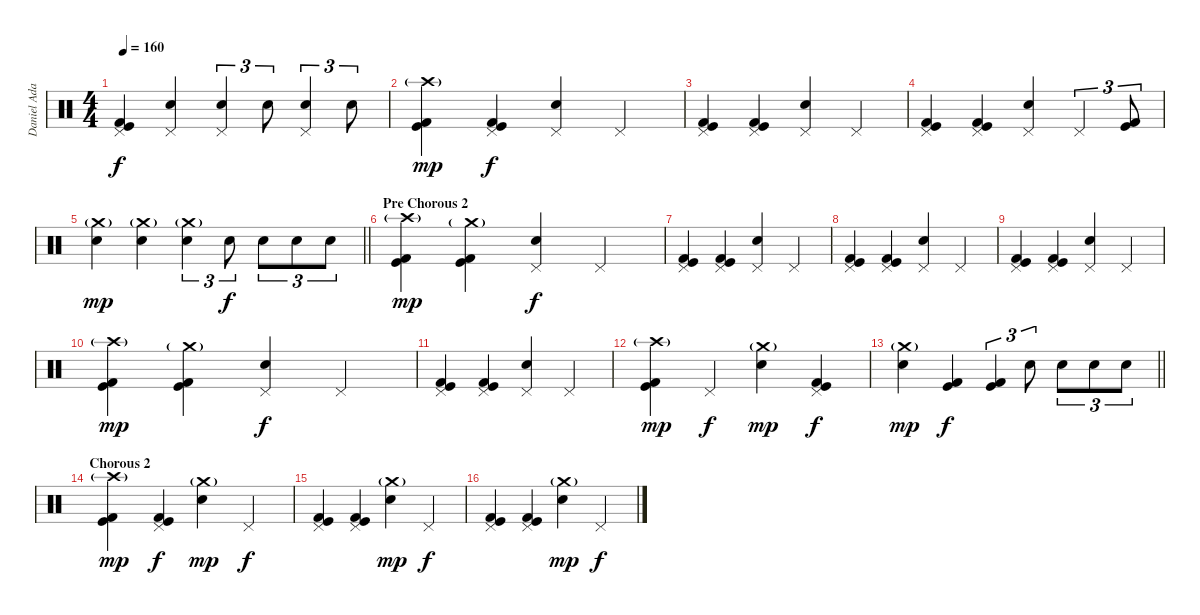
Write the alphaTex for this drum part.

\track ("Daniel Adair" "Daniel Ada") {instrument percussion}
\staff {score}
\articulation defaults
\ts (4 4)
\tempo 160
\clef neutral
\ks c
("Pedal Hi-Hat (hit)" "Kick (hit)" "Kick (hit) 2").4{dy f} ("Pedal Hi-Hat (hit)" "Electric Snare (hit)").4 ("Pedal Hi-Hat (hit)" "Electric Snare (hit)").4{tu (3 2)} "Electric Snare (hit)".8{tu (3 2)} ("Pedal Hi-Hat (hit)" "Electric Snare (hit)").4{tu (3 2)} "Electric Snare (hit)".8{tu (3 2)} |
("Crash high (hit)"{g} "Kick (hit)" "Kick (hit) 2").4{dy mp} ("Pedal Hi-Hat (hit)" "Kick (hit)" "Kick (hit) 2").4{dy f} ("Pedal Hi-Hat (hit)" "Electric Snare (hit)").4 "Pedal Hi-Hat (hit)".4 |
("Pedal Hi-Hat (hit)" "Kick (hit)" "Kick (hit) 2").4 ("Pedal Hi-Hat (hit)" "Kick (hit)" "Kick (hit) 2").4 ("Pedal Hi-Hat (hit)" "Electric Snare (hit)").4 "Pedal Hi-Hat (hit)".4 |
("Pedal Hi-Hat (hit)" "Kick (hit)" "Kick (hit) 2").4 ("Pedal Hi-Hat (hit)" "Kick (hit)" "Kick (hit) 2").4 ("Pedal Hi-Hat (hit)" "Electric Snare (hit)").4 "Pedal Hi-Hat (hit)".4{tu (3 2)} ("Kick (hit)" "Kick (hit) 2").8{tu (3 2)} |
\barLineRight lightlight
("Crash medium (hit)"{g} "Electric Snare (hit)").4{dy mp} ("Crash medium (hit)"{g} "Electric Snare (hit)").4 ("Crash medium (hit)"{g} "Electric Snare (hit)").4{tu (3 2)} "Electric Snare (hit)".8{tu (3 2) dy f} "Electric Snare (hit)".8{tu (3 2)} "Electric Snare (hit)".8{tu (3 2)} "Electric Snare (hit)".8{tu (3 2)} |
\section ("" "Pre Chorous 2")
("Crash high (hit)"{g} "Kick (hit)" "Kick (hit) 2").4{dy mp} ("Crash medium (hit)"{g} "Kick (hit)" "Kick (hit) 2").4 ("Pedal Hi-Hat (hit)" "Electric Snare (hit)").4{dy f} "Pedal Hi-Hat (hit)".4 |
("Pedal Hi-Hat (hit)" "Kick (hit)" "Kick (hit) 2").4 ("Pedal Hi-Hat (hit)" "Kick (hit)" "Kick (hit) 2").4 ("Pedal Hi-Hat (hit)" "Electric Snare (hit)").4 "Pedal Hi-Hat (hit)".4 |
("Pedal Hi-Hat (hit)" "Kick (hit)" "Kick (hit) 2").4 ("Pedal Hi-Hat (hit)" "Kick (hit)" "Kick (hit) 2").4 ("Pedal Hi-Hat (hit)" "Electric Snare (hit)").4 "Pedal Hi-Hat (hit)".4 |
("Pedal Hi-Hat (hit)" "Kick (hit)" "Kick (hit) 2").4 ("Pedal Hi-Hat (hit)" "Kick (hit)" "Kick (hit) 2").4 ("Pedal Hi-Hat (hit)" "Electric Snare (hit)").4 "Pedal Hi-Hat (hit)".4 |
("Crash high (hit)"{g} "Kick (hit)" "Kick (hit) 2").4{dy mp} ("Crash medium (hit)"{g} "Kick (hit)" "Kick (hit) 2").4 ("Pedal Hi-Hat (hit)" "Electric Snare (hit)").4{dy f} "Pedal Hi-Hat (hit)".4 |
("Pedal Hi-Hat (hit)" "Kick (hit)" "Kick (hit) 2").4 ("Pedal Hi-Hat (hit)" "Kick (hit)" "Kick (hit) 2").4 ("Pedal Hi-Hat (hit)" "Electric Snare (hit)").4 "Pedal Hi-Hat (hit)".4 |
("Crash high (hit)"{g} "Kick (hit)" "Kick (hit) 2").4{dy mp} "Pedal Hi-Hat (hit)".4{dy f} ("Crash medium (hit)"{g} "Electric Snare (hit)").4{dy mp} ("Pedal Hi-Hat (hit)" "Kick (hit)" "Kick (hit) 2").4{dy f} |
\barLineRight lightlight
("Crash medium (hit)"{g} "Electric Snare (hit)").4{dy mp} ("Kick (hit)" "Kick (hit) 2").4{dy f} ("Kick (hit)" "Kick (hit) 2").4{tu (3 2)} "Electric Snare (hit)".8{tu (3 2)} "Electric Snare (hit)".8{tu (3 2)} "Electric Snare (hit)".8{tu (3 2)} "Electric Snare (hit)".8{tu (3 2)} |
\section ("" "Chorous 2")
("Crash high (hit)"{g} "Kick (hit)" "Kick (hit) 2").4{dy mp} ("Pedal Hi-Hat (hit)" "Kick (hit)" "Kick (hit) 2").4{dy f} ("Crash medium (hit)"{g} "Electric Snare (hit)").4{dy mp} "Pedal Hi-Hat (hit)".4{dy f} |
("Pedal Hi-Hat (hit)" "Kick (hit)" "Kick (hit) 2").4 ("Pedal Hi-Hat (hit)" "Kick (hit)" "Kick (hit) 2").4 ("Crash medium (hit)"{g} "Electric Snare (hit)").4{dy mp} "Pedal Hi-Hat (hit)".4{dy f} |
("Pedal Hi-Hat (hit)" "Kick (hit)" "Kick (hit) 2").4 ("Pedal Hi-Hat (hit)" "Kick (hit)" "Kick (hit) 2").4 ("Crash medium (hit)"{g} "Electric Snare (hit)").4{dy mp} "Pedal Hi-Hat (hit)".4{dy f}
